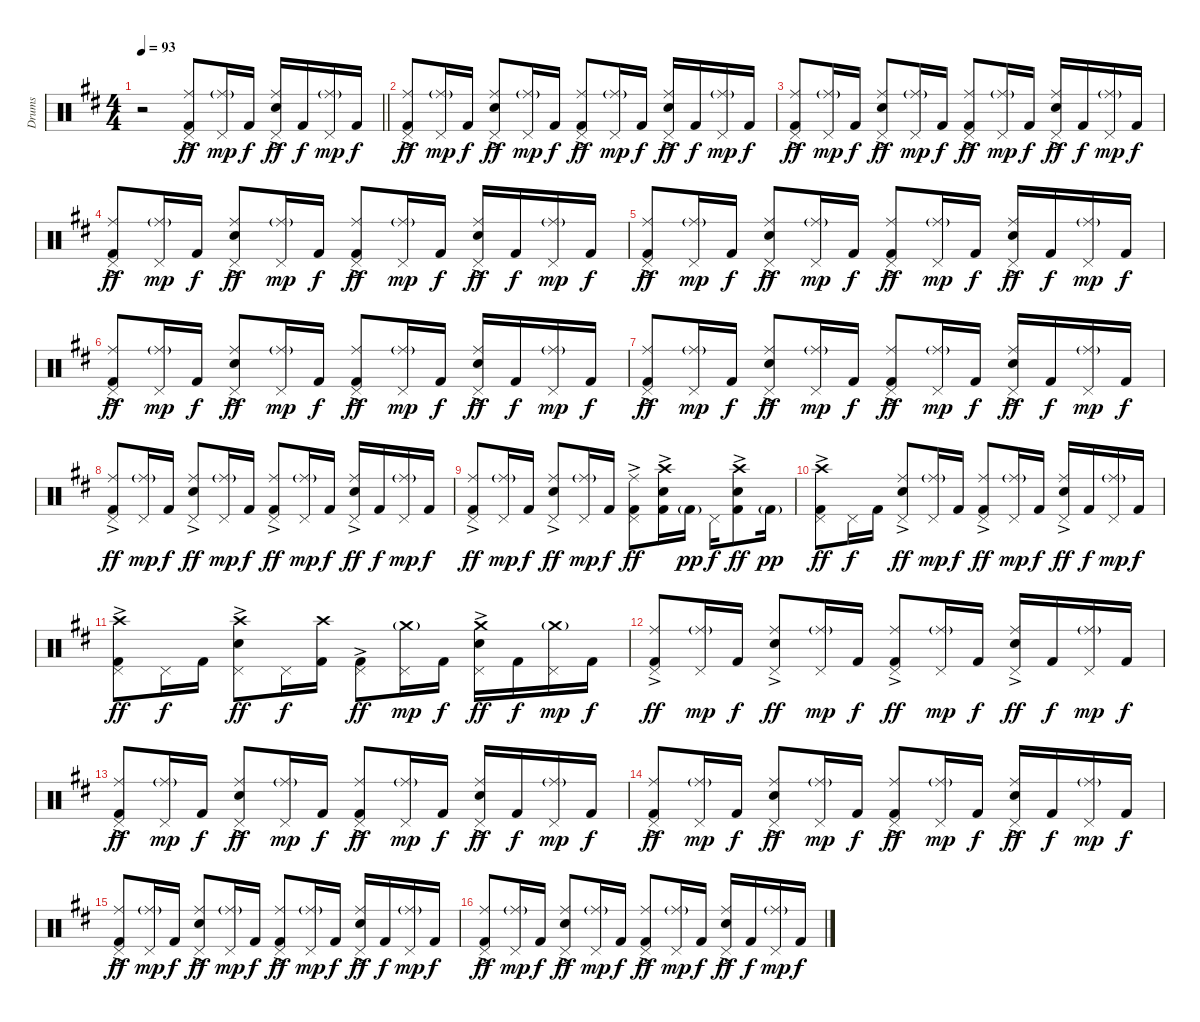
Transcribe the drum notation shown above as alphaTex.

\track ("Drums" "Drums") {instrument percussion}
\staff {score}
\articulation defaults
\ts (4 4)
\tempo 93
\clef neutral
\barLineRight lightlight
\ks d
r.2{dy ff} ("Pedal Hi-Hat (hit)" "Ride (middle)" "Kick (hit) 2"{ac}).8 ("Pedal Hi-Hat (hit)" "Ride (middle)"{g}).16{dy mp} "Kick (hit) 2".16{dy f} ("Pedal Hi-Hat (hit)" "Ride (middle)" "Snare (hit) 2"{ac}).16{dy ff} "Kick (hit) 2".16{dy f} ("Pedal Hi-Hat (hit)" "Ride (middle)"{g}).16{dy mp} "Kick (hit) 2".16{dy f} |
("Pedal Hi-Hat (hit)" "Ride (middle)" "Kick (hit) 2"{ac}).8{dy ff} ("Pedal Hi-Hat (hit)" "Ride (middle)"{g}).16{dy mp} "Kick (hit) 2".16{dy f} ("Pedal Hi-Hat (hit)" "Ride (middle)" "Snare (hit) 2"{ac}).8{dy ff} ("Pedal Hi-Hat (hit)" "Ride (middle)"{g}).16{dy mp} "Kick (hit) 2".16{dy f} ("Pedal Hi-Hat (hit)" "Ride (middle)" "Kick (hit) 2"{ac}).8{dy ff} ("Pedal Hi-Hat (hit)" "Ride (middle)"{g}).16{dy mp} "Kick (hit) 2".16{dy f} ("Pedal Hi-Hat (hit)" "Ride (middle)" "Snare (hit) 2"{ac}).16{dy ff} "Kick (hit) 2".16{dy f} ("Pedal Hi-Hat (hit)" "Ride (middle)"{g}).16{dy mp} "Kick (hit) 2".16{dy f} |
("Pedal Hi-Hat (hit)" "Ride (middle)" "Kick (hit) 2"{ac}).8{dy ff} ("Pedal Hi-Hat (hit)" "Ride (middle)"{g}).16{dy mp} "Kick (hit) 2".16{dy f} ("Pedal Hi-Hat (hit)" "Ride (middle)" "Snare (hit) 2"{ac}).8{dy ff} ("Pedal Hi-Hat (hit)" "Ride (middle)"{g}).16{dy mp} "Kick (hit) 2".16{dy f} ("Pedal Hi-Hat (hit)" "Ride (middle)" "Kick (hit) 2"{ac}).8{dy ff} ("Pedal Hi-Hat (hit)" "Ride (middle)"{g}).16{dy mp} "Kick (hit) 2".16{dy f} ("Pedal Hi-Hat (hit)" "Ride (middle)" "Snare (hit) 2"{ac}).16{dy ff} "Kick (hit) 2".16{dy f} ("Pedal Hi-Hat (hit)" "Ride (middle)"{g}).16{dy mp} "Kick (hit) 2".16{dy f} |
("Pedal Hi-Hat (hit)" "Ride (middle)" "Kick (hit) 2"{ac}).8{dy ff} ("Pedal Hi-Hat (hit)" "Ride (middle)"{g}).16{dy mp} "Kick (hit) 2".16{dy f} ("Pedal Hi-Hat (hit)" "Ride (middle)" "Snare (hit) 2"{ac}).8{dy ff} ("Pedal Hi-Hat (hit)" "Ride (middle)"{g}).16{dy mp} "Kick (hit) 2".16{dy f} ("Pedal Hi-Hat (hit)" "Ride (middle)" "Kick (hit) 2"{ac}).8{dy ff} ("Pedal Hi-Hat (hit)" "Ride (middle)"{g}).16{dy mp} "Kick (hit) 2".16{dy f} ("Pedal Hi-Hat (hit)" "Ride (middle)" "Snare (hit) 2"{ac}).16{dy ff} "Kick (hit) 2".16{dy f} ("Pedal Hi-Hat (hit)" "Ride (middle)"{g}).16{dy mp} "Kick (hit) 2".16{dy f} |
("Pedal Hi-Hat (hit)" "Ride (middle)" "Kick (hit) 2"{ac}).8{dy ff} ("Pedal Hi-Hat (hit)" "Ride (middle)"{g}).16{dy mp} "Kick (hit) 2".16{dy f} ("Pedal Hi-Hat (hit)" "Ride (middle)" "Snare (hit) 2"{ac}).8{dy ff} ("Pedal Hi-Hat (hit)" "Ride (middle)"{g}).16{dy mp} "Kick (hit) 2".16{dy f} ("Pedal Hi-Hat (hit)" "Ride (middle)" "Kick (hit) 2"{ac}).8{dy ff} ("Pedal Hi-Hat (hit)" "Ride (middle)"{g}).16{dy mp} "Kick (hit) 2".16{dy f} ("Pedal Hi-Hat (hit)" "Ride (middle)" "Snare (hit) 2"{ac}).16{dy ff} "Kick (hit) 2".16{dy f} ("Pedal Hi-Hat (hit)" "Ride (middle)"{g}).16{dy mp} "Kick (hit) 2".16{dy f} |
("Pedal Hi-Hat (hit)" "Ride (middle)" "Kick (hit) 2"{ac}).8{dy ff} ("Pedal Hi-Hat (hit)" "Ride (middle)"{g}).16{dy mp} "Kick (hit) 2".16{dy f} ("Pedal Hi-Hat (hit)" "Ride (middle)" "Snare (hit) 2"{ac}).8{dy ff} ("Pedal Hi-Hat (hit)" "Ride (middle)"{g}).16{dy mp} "Kick (hit) 2".16{dy f} ("Pedal Hi-Hat (hit)" "Ride (middle)" "Kick (hit) 2"{ac}).8{dy ff} ("Pedal Hi-Hat (hit)" "Ride (middle)"{g}).16{dy mp} "Kick (hit) 2".16{dy f} ("Pedal Hi-Hat (hit)" "Ride (middle)" "Snare (hit) 2"{ac}).16{dy ff} "Kick (hit) 2".16{dy f} ("Pedal Hi-Hat (hit)" "Ride (middle)"{g}).16{dy mp} "Kick (hit) 2".16{dy f} |
("Pedal Hi-Hat (hit)" "Ride (middle)" "Kick (hit) 2"{ac}).8{dy ff} ("Pedal Hi-Hat (hit)" "Ride (middle)"{g}).16{dy mp} "Kick (hit) 2".16{dy f} ("Pedal Hi-Hat (hit)" "Ride (middle)" "Snare (hit) 2"{ac}).8{dy ff} ("Pedal Hi-Hat (hit)" "Ride (middle)"{g}).16{dy mp} "Kick (hit) 2".16{dy f} ("Pedal Hi-Hat (hit)" "Ride (middle)" "Kick (hit) 2"{ac}).8{dy ff} ("Pedal Hi-Hat (hit)" "Ride (middle)"{g}).16{dy mp} "Kick (hit) 2".16{dy f} ("Pedal Hi-Hat (hit)" "Ride (middle)" "Snare (hit) 2"{ac}).16{dy ff} "Kick (hit) 2".16{dy f} ("Pedal Hi-Hat (hit)" "Ride (middle)"{g}).16{dy mp} "Kick (hit) 2".16{dy f} |
("Pedal Hi-Hat (hit)" "Ride (middle)" "Kick (hit) 2"{ac}).8{dy ff} ("Pedal Hi-Hat (hit)" "Ride (middle)"{g}).16{dy mp} "Kick (hit) 2".16{dy f} ("Pedal Hi-Hat (hit)" "Ride (middle)" "Snare (hit) 2"{ac}).8{dy ff} ("Pedal Hi-Hat (hit)" "Ride (middle)"{g}).16{dy mp} "Kick (hit) 2".16{dy f} ("Pedal Hi-Hat (hit)" "Ride (middle)" "Kick (hit) 2"{ac}).8{dy ff} ("Pedal Hi-Hat (hit)" "Ride (middle)"{g}).16{dy mp} "Kick (hit) 2".16{dy f} ("Pedal Hi-Hat (hit)" "Ride (middle)" "Snare (hit) 2"{ac}).16{dy ff} "Kick (hit) 2".16{dy f} ("Pedal Hi-Hat (hit)" "Ride (middle)"{g}).16{dy mp} "Kick (hit) 2".16{dy f} |
("Pedal Hi-Hat (hit)" "Ride (middle)" "Kick (hit) 2"{ac}).8{dy ff} ("Pedal Hi-Hat (hit)" "Ride (middle)"{g}).16{dy mp} "Kick (hit) 2".16{dy f} ("Pedal Hi-Hat (hit)" "Ride (middle)" "Snare (hit) 2"{ac}).8{dy ff} ("Pedal Hi-Hat (hit)" "Ride (middle)"{g}).16{dy mp} "Kick (hit) 2".16{dy f} ("Pedal Hi-Hat (hit)" "Ride (middle)" "Kick (hit) 2"{ac}).8{dy ff} ("Crash high (hit)" "Snare (hit) 2" "Kick (hit) 2"{ac}).16 "Kick (hit) 2"{g}.16{dy pp} "Pedal Hi-Hat (hit)".16{dy f} ("Crash high (hit)" "Snare (hit) 2" "Kick (hit) 2"{ac}).8{dy ff} "Kick (hit) 2"{g}.16{dy pp} |
("Pedal Hi-Hat (hit)" "Crash high (hit)" "Kick (hit) 2"{ac}).8{dy ff} "Pedal Hi-Hat (hit)".16{dy f} "Kick (hit) 2".16 ("Pedal Hi-Hat (hit)" "Ride (middle)" "Snare (hit) 2"{ac}).8{dy ff} ("Pedal Hi-Hat (hit)" "Ride (middle)"{g}).16{dy mp} "Kick (hit) 2".16{dy f} ("Pedal Hi-Hat (hit)" "Ride (middle)" "Kick (hit) 2"{ac}).8{dy ff} ("Pedal Hi-Hat (hit)" "Ride (middle)"{g}).16{dy mp} "Kick (hit) 2".16{dy f} ("Pedal Hi-Hat (hit)" "Ride (middle)" "Snare (hit) 2"{ac}).16{dy ff} "Kick (hit) 2".16{dy f} ("Pedal Hi-Hat (hit)" "Ride (middle)"{g}).16{dy mp} "Kick (hit) 2".16{dy f} |
("Pedal Hi-Hat (hit)" "Crash high (hit)" "Kick (hit) 2"{ac}).8{dy ff} "Pedal Hi-Hat (hit)".16{dy f} "Kick (hit) 2".16 ("Pedal Hi-Hat (hit)" "Crash high (hit)" "Snare (hit) 2"{ac}).8{dy ff} "Pedal Hi-Hat (hit)".16{dy f} ("Crash high (hit)" "Kick (hit) 2").16 ("Pedal Hi-Hat (hit)" "Kick (hit) 2"{ac}).8{dy ff} ("Pedal Hi-Hat (hit)" "Crash medium (hit)"{g}).16{dy mp} "Kick (hit) 2".16{dy f} ("Pedal Hi-Hat (hit)" "Crash medium (hit)" "Snare (hit) 2"{ac}).16{dy ff} "Kick (hit) 2".16{dy f} ("Pedal Hi-Hat (hit)" "Crash medium (hit)"{g}).16{dy mp} "Kick (hit) 2".16{dy f} |
("Pedal Hi-Hat (hit)" "Ride (middle)" "Kick (hit) 2"{ac}).8{dy ff} ("Pedal Hi-Hat (hit)" "Ride (middle)"{g}).16{dy mp} "Kick (hit) 2".16{dy f} ("Pedal Hi-Hat (hit)" "Ride (middle)" "Snare (hit) 2"{ac}).8{dy ff} ("Pedal Hi-Hat (hit)" "Ride (middle)"{g}).16{dy mp} "Kick (hit) 2".16{dy f} ("Pedal Hi-Hat (hit)" "Ride (middle)" "Kick (hit) 2"{ac}).8{dy ff} ("Pedal Hi-Hat (hit)" "Ride (middle)"{g}).16{dy mp} "Kick (hit) 2".16{dy f} ("Pedal Hi-Hat (hit)" "Ride (middle)" "Snare (hit) 2"{ac}).16{dy ff} "Kick (hit) 2".16{dy f} ("Pedal Hi-Hat (hit)" "Ride (middle)"{g}).16{dy mp} "Kick (hit) 2".16{dy f} |
("Pedal Hi-Hat (hit)" "Ride (middle)" "Kick (hit) 2"{ac}).8{dy ff} ("Pedal Hi-Hat (hit)" "Ride (middle)"{g}).16{dy mp} "Kick (hit) 2".16{dy f} ("Pedal Hi-Hat (hit)" "Ride (middle)" "Snare (hit) 2"{ac}).8{dy ff} ("Pedal Hi-Hat (hit)" "Ride (middle)"{g}).16{dy mp} "Kick (hit) 2".16{dy f} ("Pedal Hi-Hat (hit)" "Ride (middle)" "Kick (hit) 2"{ac}).8{dy ff} ("Pedal Hi-Hat (hit)" "Ride (middle)"{g}).16{dy mp} "Kick (hit) 2".16{dy f} ("Pedal Hi-Hat (hit)" "Ride (middle)" "Snare (hit) 2"{ac}).16{dy ff} "Kick (hit) 2".16{dy f} ("Pedal Hi-Hat (hit)" "Ride (middle)"{g}).16{dy mp} "Kick (hit) 2".16{dy f} |
("Pedal Hi-Hat (hit)" "Ride (middle)" "Kick (hit) 2"{ac}).8{dy ff} ("Pedal Hi-Hat (hit)" "Ride (middle)"{g}).16{dy mp} "Kick (hit) 2".16{dy f} ("Pedal Hi-Hat (hit)" "Ride (middle)" "Snare (hit) 2"{ac}).8{dy ff} ("Pedal Hi-Hat (hit)" "Ride (middle)"{g}).16{dy mp} "Kick (hit) 2".16{dy f} ("Pedal Hi-Hat (hit)" "Ride (middle)" "Kick (hit) 2"{ac}).8{dy ff} ("Pedal Hi-Hat (hit)" "Ride (middle)"{g}).16{dy mp} "Kick (hit) 2".16{dy f} ("Pedal Hi-Hat (hit)" "Ride (middle)" "Snare (hit) 2"{ac}).16{dy ff} "Kick (hit) 2".16{dy f} ("Pedal Hi-Hat (hit)" "Ride (middle)"{g}).16{dy mp} "Kick (hit) 2".16{dy f} |
("Pedal Hi-Hat (hit)" "Ride (middle)" "Kick (hit) 2"{ac}).8{dy ff} ("Pedal Hi-Hat (hit)" "Ride (middle)"{g}).16{dy mp} "Kick (hit) 2".16{dy f} ("Pedal Hi-Hat (hit)" "Ride (middle)" "Snare (hit) 2"{ac}).8{dy ff} ("Pedal Hi-Hat (hit)" "Ride (middle)"{g}).16{dy mp} "Kick (hit) 2".16{dy f} ("Pedal Hi-Hat (hit)" "Ride (middle)" "Kick (hit) 2"{ac}).8{dy ff} ("Pedal Hi-Hat (hit)" "Ride (middle)"{g}).16{dy mp} "Kick (hit) 2".16{dy f} ("Pedal Hi-Hat (hit)" "Ride (middle)" "Snare (hit) 2"{ac}).16{dy ff} "Kick (hit) 2".16{dy f} ("Pedal Hi-Hat (hit)" "Ride (middle)"{g}).16{dy mp} "Kick (hit) 2".16{dy f} |
("Pedal Hi-Hat (hit)" "Ride (middle)" "Kick (hit) 2"{ac}).8{dy ff} ("Pedal Hi-Hat (hit)" "Ride (middle)"{g}).16{dy mp} "Kick (hit) 2".16{dy f} ("Pedal Hi-Hat (hit)" "Ride (middle)" "Snare (hit) 2"{ac}).8{dy ff} ("Pedal Hi-Hat (hit)" "Ride (middle)"{g}).16{dy mp} "Kick (hit) 2".16{dy f} ("Pedal Hi-Hat (hit)" "Ride (middle)" "Kick (hit) 2"{ac}).8{dy ff} ("Pedal Hi-Hat (hit)" "Ride (middle)"{g}).16{dy mp} "Kick (hit) 2".16{dy f} ("Pedal Hi-Hat (hit)" "Ride (middle)" "Snare (hit) 2"{ac}).16{dy ff} "Kick (hit) 2".16{dy f} ("Pedal Hi-Hat (hit)" "Ride (middle)"{g}).16{dy mp} "Kick (hit) 2".16{dy f}
